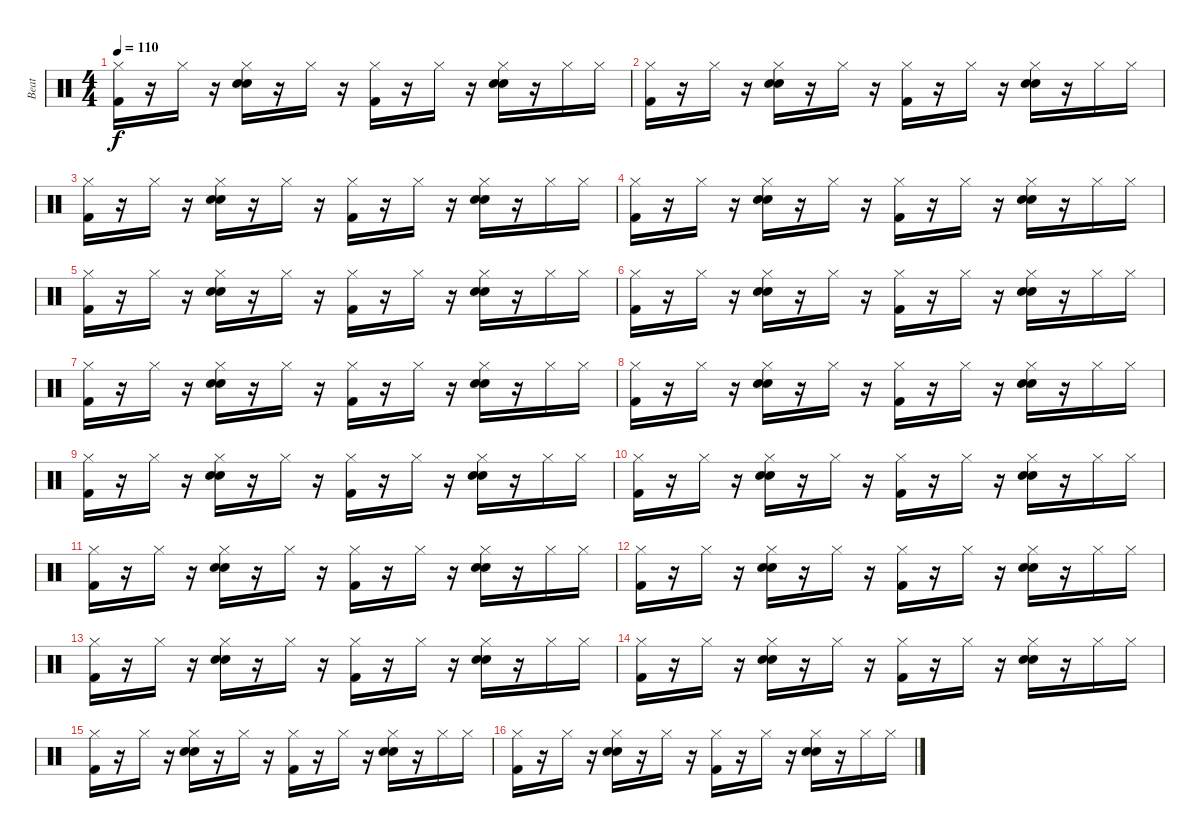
\track ("Beat" "Beat") {instrument percussion}
\staff {score}
\articulation defaults
\ts (4 4)
\tempo 110
\clef neutral
\ks c
("Hi-Hat (closed)" "Kick (hit) 2").16{dy f} r.16 "Hi-Hat (closed)".16 r.16 ("Hi-Hat (closed)" "Electric Snare (hit)" "Hand Clap (hit)").16 r.16 "Hi-Hat (closed)".16 r.16 ("Hi-Hat (closed)" "Kick (hit) 2").16 r.16 "Hi-Hat (closed)".16 r.16 ("Hi-Hat (closed)" "Electric Snare (hit)" "Hand Clap (hit)").16 r.16 "Hi-Hat (closed)".16 "Hi-Hat (closed)".16 |
("Hi-Hat (closed)" "Kick (hit) 2").16 r.16 "Hi-Hat (closed)".16 r.16 ("Hi-Hat (closed)" "Electric Snare (hit)" "Hand Clap (hit)").16 r.16 "Hi-Hat (closed)".16 r.16 ("Hi-Hat (closed)" "Kick (hit) 2").16 r.16 "Hi-Hat (closed)".16 r.16 ("Hi-Hat (closed)" "Electric Snare (hit)" "Hand Clap (hit)").16 r.16 "Hi-Hat (closed)".16 "Hi-Hat (closed)".16 |
("Hi-Hat (closed)" "Kick (hit) 2").16 r.16 "Hi-Hat (closed)".16 r.16 ("Hi-Hat (closed)" "Electric Snare (hit)" "Hand Clap (hit)").16 r.16 "Hi-Hat (closed)".16 r.16 ("Hi-Hat (closed)" "Kick (hit) 2").16 r.16 "Hi-Hat (closed)".16 r.16 ("Hi-Hat (closed)" "Electric Snare (hit)" "Hand Clap (hit)").16 r.16 "Hi-Hat (closed)".16 "Hi-Hat (closed)".16 |
("Hi-Hat (closed)" "Kick (hit) 2").16 r.16 "Hi-Hat (closed)".16 r.16 ("Hi-Hat (closed)" "Electric Snare (hit)" "Hand Clap (hit)").16 r.16 "Hi-Hat (closed)".16 r.16 ("Hi-Hat (closed)" "Kick (hit) 2").16 r.16 "Hi-Hat (closed)".16 r.16 ("Hi-Hat (closed)" "Electric Snare (hit)" "Hand Clap (hit)").16 r.16 "Hi-Hat (closed)".16 "Hi-Hat (closed)".16 |
("Hi-Hat (closed)" "Kick (hit) 2").16 r.16 "Hi-Hat (closed)".16 r.16 ("Hi-Hat (closed)" "Electric Snare (hit)" "Hand Clap (hit)").16 r.16 "Hi-Hat (closed)".16 r.16 ("Hi-Hat (closed)" "Kick (hit) 2").16 r.16 "Hi-Hat (closed)".16 r.16 ("Hi-Hat (closed)" "Electric Snare (hit)" "Hand Clap (hit)").16 r.16 "Hi-Hat (closed)".16 "Hi-Hat (closed)".16 |
("Hi-Hat (closed)" "Kick (hit) 2").16 r.16 "Hi-Hat (closed)".16 r.16 ("Hi-Hat (closed)" "Electric Snare (hit)" "Hand Clap (hit)").16 r.16 "Hi-Hat (closed)".16 r.16 ("Hi-Hat (closed)" "Kick (hit) 2").16 r.16 "Hi-Hat (closed)".16 r.16 ("Hi-Hat (closed)" "Electric Snare (hit)" "Hand Clap (hit)").16 r.16 "Hi-Hat (closed)".16 "Hi-Hat (closed)".16 |
("Hi-Hat (closed)" "Kick (hit) 2").16 r.16 "Hi-Hat (closed)".16 r.16 ("Hi-Hat (closed)" "Electric Snare (hit)" "Hand Clap (hit)").16 r.16 "Hi-Hat (closed)".16 r.16 ("Hi-Hat (closed)" "Kick (hit) 2").16 r.16 "Hi-Hat (closed)".16 r.16 ("Hi-Hat (closed)" "Electric Snare (hit)" "Hand Clap (hit)").16 r.16 "Hi-Hat (closed)".16 "Hi-Hat (closed)".16 |
("Hi-Hat (closed)" "Kick (hit) 2").16 r.16 "Hi-Hat (closed)".16 r.16 ("Hi-Hat (closed)" "Electric Snare (hit)" "Hand Clap (hit)").16 r.16 "Hi-Hat (closed)".16 r.16 ("Hi-Hat (closed)" "Kick (hit) 2").16 r.16 "Hi-Hat (closed)".16 r.16 ("Hi-Hat (closed)" "Electric Snare (hit)" "Hand Clap (hit)").16 r.16 "Hi-Hat (closed)".16 "Hi-Hat (closed)".16 |
("Hi-Hat (closed)" "Kick (hit) 2").16 r.16 "Hi-Hat (closed)".16 r.16 ("Hi-Hat (closed)" "Electric Snare (hit)" "Hand Clap (hit)").16 r.16 "Hi-Hat (closed)".16 r.16 ("Hi-Hat (closed)" "Kick (hit) 2").16 r.16 "Hi-Hat (closed)".16 r.16 ("Hi-Hat (closed)" "Electric Snare (hit)" "Hand Clap (hit)").16 r.16 "Hi-Hat (closed)".16 "Hi-Hat (closed)".16 |
("Hi-Hat (closed)" "Kick (hit) 2").16 r.16 "Hi-Hat (closed)".16 r.16 ("Hi-Hat (closed)" "Electric Snare (hit)" "Hand Clap (hit)").16 r.16 "Hi-Hat (closed)".16 r.16 ("Hi-Hat (closed)" "Kick (hit) 2").16 r.16 "Hi-Hat (closed)".16 r.16 ("Hi-Hat (closed)" "Electric Snare (hit)" "Hand Clap (hit)").16 r.16 "Hi-Hat (closed)".16 "Hi-Hat (closed)".16 |
("Hi-Hat (closed)" "Kick (hit) 2").16 r.16 "Hi-Hat (closed)".16 r.16 ("Hi-Hat (closed)" "Electric Snare (hit)" "Hand Clap (hit)").16 r.16 "Hi-Hat (closed)".16 r.16 ("Hi-Hat (closed)" "Kick (hit) 2").16 r.16 "Hi-Hat (closed)".16 r.16 ("Hi-Hat (closed)" "Electric Snare (hit)" "Hand Clap (hit)").16 r.16 "Hi-Hat (closed)".16 "Hi-Hat (closed)".16 |
("Hi-Hat (closed)" "Kick (hit) 2").16 r.16 "Hi-Hat (closed)".16 r.16 ("Hi-Hat (closed)" "Electric Snare (hit)" "Hand Clap (hit)").16 r.16 "Hi-Hat (closed)".16 r.16 ("Hi-Hat (closed)" "Kick (hit) 2").16 r.16 "Hi-Hat (closed)".16 r.16 ("Hi-Hat (closed)" "Electric Snare (hit)" "Hand Clap (hit)").16 r.16 "Hi-Hat (closed)".16 "Hi-Hat (closed)".16 |
("Hi-Hat (closed)" "Kick (hit) 2").16 r.16 "Hi-Hat (closed)".16 r.16 ("Hi-Hat (closed)" "Electric Snare (hit)" "Hand Clap (hit)").16 r.16 "Hi-Hat (closed)".16 r.16 ("Hi-Hat (closed)" "Kick (hit) 2").16 r.16 "Hi-Hat (closed)".16 r.16 ("Hi-Hat (closed)" "Electric Snare (hit)" "Hand Clap (hit)").16 r.16 "Hi-Hat (closed)".16 "Hi-Hat (closed)".16 |
("Hi-Hat (closed)" "Kick (hit) 2").16 r.16 "Hi-Hat (closed)".16 r.16 ("Hi-Hat (closed)" "Electric Snare (hit)" "Hand Clap (hit)").16 r.16 "Hi-Hat (closed)".16 r.16 ("Hi-Hat (closed)" "Kick (hit) 2").16 r.16 "Hi-Hat (closed)".16 r.16 ("Hi-Hat (closed)" "Electric Snare (hit)" "Hand Clap (hit)").16 r.16 "Hi-Hat (closed)".16 "Hi-Hat (closed)".16 |
("Hi-Hat (closed)" "Kick (hit) 2").16 r.16 "Hi-Hat (closed)".16 r.16 ("Hi-Hat (closed)" "Electric Snare (hit)" "Hand Clap (hit)").16 r.16 "Hi-Hat (closed)".16 r.16 ("Hi-Hat (closed)" "Kick (hit) 2").16 r.16 "Hi-Hat (closed)".16 r.16 ("Hi-Hat (closed)" "Electric Snare (hit)" "Hand Clap (hit)").16 r.16 "Hi-Hat (closed)".16 "Hi-Hat (closed)".16 |
("Hi-Hat (closed)" "Kick (hit) 2").16 r.16 "Hi-Hat (closed)".16 r.16 ("Hi-Hat (closed)" "Electric Snare (hit)" "Hand Clap (hit)").16 r.16 "Hi-Hat (closed)".16 r.16 ("Hi-Hat (closed)" "Kick (hit) 2").16 r.16 "Hi-Hat (closed)".16 r.16 ("Hi-Hat (closed)" "Electric Snare (hit)" "Hand Clap (hit)").16 r.16 "Hi-Hat (closed)".16 "Hi-Hat (closed)".16
